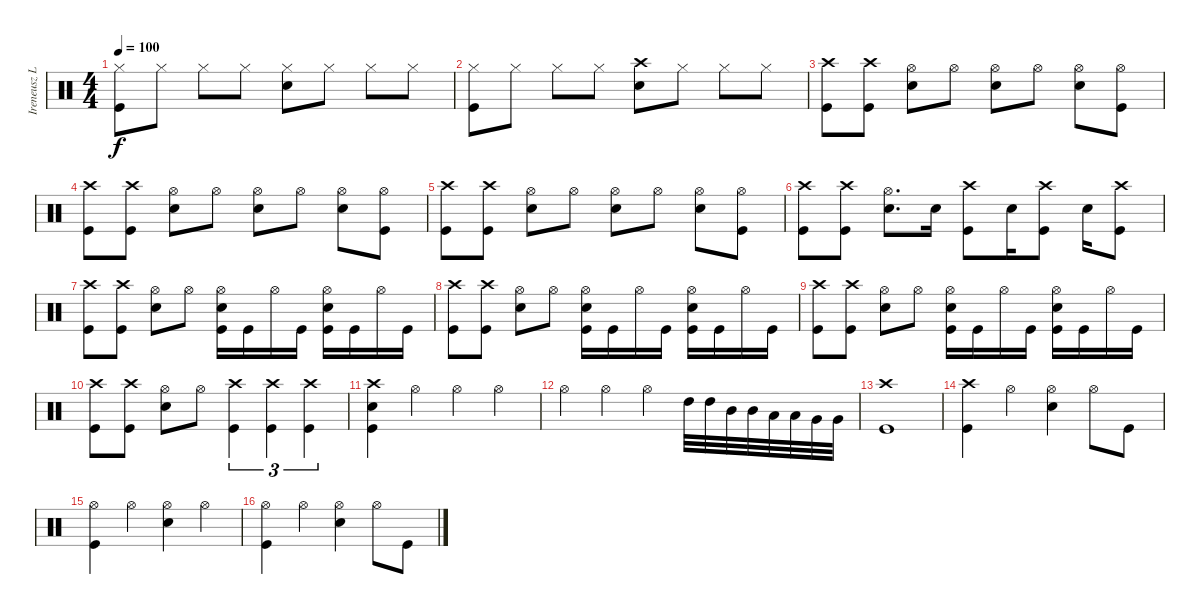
\track ("Ireneusz Loth" "Ireneusz L") {instrument percussion}
\staff {score}
\articulation defaults
\ts (4 4)
\tempo 100
\clef neutral
\ks c
("Hi-Hat (closed)" "Kick (hit)").8{dy f} "Hi-Hat (closed)".8 "Hi-Hat (closed)".8 "Hi-Hat (closed)".8 ("Hi-Hat (closed)" "Snare (hit) 2").8 "Hi-Hat (closed)".8 "Hi-Hat (closed)".8 "Hi-Hat (closed)".8 |
("Hi-Hat (closed)" "Kick (hit)").8 "Hi-Hat (closed)".8 "Hi-Hat (closed)".8 "Hi-Hat (closed)".8 ("Crash high (hit)" "Snare (hit) 2").8 "Hi-Hat (closed)".8 "Hi-Hat (closed)".8 "Hi-Hat (closed)".8 |
("Crash high (hit)" "Kick (hit)").8 ("Crash high (hit)" "Kick (hit)").8 ("Hi-Hat (open)" "Snare (hit) 2").8 "Hi-Hat (open)".8 ("Hi-Hat (open)" "Snare (hit) 2").8 "Hi-Hat (open)".8 ("Hi-Hat (open)" "Snare (hit) 2").8 ("Hi-Hat (open)" "Kick (hit)").8 |
("Crash high (hit)" "Kick (hit)").8 ("Crash high (hit)" "Kick (hit)").8 ("Hi-Hat (open)" "Snare (hit) 2").8 "Hi-Hat (open)".8 ("Hi-Hat (open)" "Snare (hit) 2").8 "Hi-Hat (open)".8 ("Hi-Hat (open)" "Snare (hit) 2").8 ("Hi-Hat (open)" "Kick (hit)").8 |
("Crash high (hit)" "Kick (hit)").8 ("Crash high (hit)" "Kick (hit)").8 ("Hi-Hat (open)" "Snare (hit) 2").8 "Hi-Hat (open)".8 ("Hi-Hat (open)" "Snare (hit) 2").8 "Hi-Hat (open)".8 ("Hi-Hat (open)" "Snare (hit) 2").8 ("Hi-Hat (open)" "Kick (hit)").8 |
("Crash high (hit)" "Kick (hit)").8 ("Crash high (hit)" "Kick (hit)").8 ("Hi-Hat (open)" "Snare (hit) 2").8{d} "Snare (hit) 2".16 ("Crash high (hit)" "Kick (hit)").8 "Snare (hit) 2".16 ("Crash high (hit)" "Kick (hit)").8 "Snare (hit) 2".16 ("Crash high (hit)" "Kick (hit)").8 |
("Crash high (hit)" "Kick (hit)").8 ("Crash high (hit)" "Kick (hit)").8 ("Hi-Hat (open)" "Snare (hit) 2").8 "Hi-Hat (open)".8 ("Hi-Hat (open)" "Snare (hit) 2" "Kick (hit)").16 "Kick (hit)".16 "Hi-Hat (open)".16 "Kick (hit)".16 ("Snare (hit) 2" "Hi-Hat (open)" "Kick (hit)").16 "Kick (hit)".16 "Hi-Hat (open)".16 "Kick (hit)".16 |
("Crash high (hit)" "Kick (hit)").8 ("Crash high (hit)" "Kick (hit)").8 ("Hi-Hat (open)" "Snare (hit) 2").8 "Hi-Hat (open)".8 ("Hi-Hat (open)" "Snare (hit) 2" "Kick (hit)").16 "Kick (hit)".16 "Hi-Hat (open)".16 "Kick (hit)".16 ("Snare (hit) 2" "Hi-Hat (open)" "Kick (hit)").16 "Kick (hit)".16 "Hi-Hat (open)".16 "Kick (hit)".16 |
("Crash high (hit)" "Kick (hit)").8 ("Crash high (hit)" "Kick (hit)").8 ("Hi-Hat (open)" "Snare (hit) 2").8 "Hi-Hat (open)".8 ("Hi-Hat (open)" "Snare (hit) 2" "Kick (hit)").16 "Kick (hit)".16 "Hi-Hat (open)".16 "Kick (hit)".16 ("Snare (hit) 2" "Hi-Hat (open)" "Kick (hit)").16 "Kick (hit)".16 "Hi-Hat (open)".16 "Kick (hit)".16 |
("Crash high (hit)" "Kick (hit)").8 ("Crash high (hit)" "Kick (hit)").8 ("Hi-Hat (open)" "Snare (hit) 2").8 "Hi-Hat (open)".8 ("Crash high (hit)" "Kick (hit)").4{tu (3 2)} ("Crash high (hit)" "Kick (hit)").4{tu (3 2)} ("Crash high (hit)" "Kick (hit)").4{tu (3 2)} |
("Snare (hit) 2" "Crash high (hit)" "Kick (hit)").4 "Hi-Hat (open)".4 "Hi-Hat (open)".4 "Hi-Hat (open)".4 |
"Hi-Hat (open)".4 "Hi-Hat (open)".4 "Hi-Hat (open)".4 "High Tom (hit)".32 "High Tom (hit)".32 "Mid Tom (hit)".32 "Mid Tom (hit)".32 "Low Tom (hit)".32 "Low Tom (hit)".32 "Very Low Tom (hit)".32 "Very Low Tom (hit)".32 |
("Crash high (hit)" "Kick (hit)").1 |
("Crash high (hit)" "Kick (hit)").4 "Hi-Hat (open)".4 ("Hi-Hat (open)" "Snare (hit) 2").4 "Hi-Hat (open)".8 "Kick (hit)".8 |
("Hi-Hat (open)" "Kick (hit)").4 "Hi-Hat (open)".4 ("Hi-Hat (open)" "Snare (hit) 2").4 "Hi-Hat (open)".4 |
("Hi-Hat (open)" "Kick (hit)").4 "Hi-Hat (open)".4 ("Hi-Hat (open)" "Snare (hit) 2").4 "Hi-Hat (open)".8 "Kick (hit)".8
